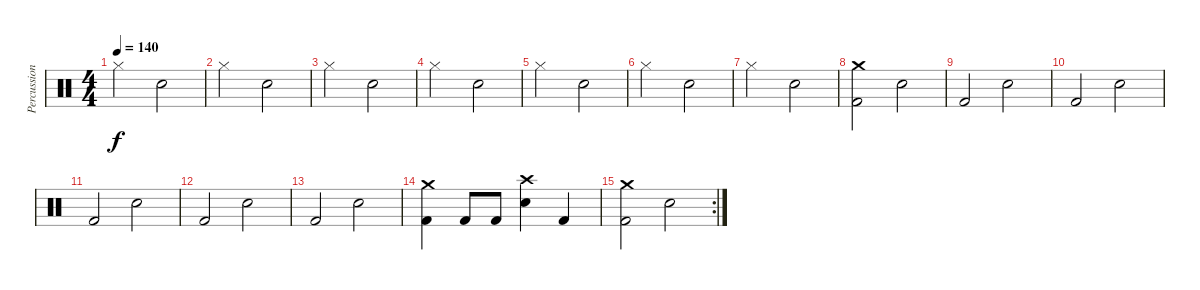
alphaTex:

\track ("Percussion" "Percussion") {instrument percussion}
\staff {score}
\articulation defaults
\ts (4 4)
\tempo 140
\clef neutral
\ks c "Hi-Hat (closed)".2{dy f} "Snare (hit) 2".2
|
"Hi-Hat (closed)".2 "Snare (hit) 2".2 |
"Hi-Hat (closed)".2 "Snare (hit) 2".2 |
"Hi-Hat (closed)".2 "Snare (hit) 2".2 |
"Hi-Hat (closed)".2 "Snare (hit) 2".2 |
"Hi-Hat (closed)".2 "Snare (hit) 2".2 |
"Hi-Hat (closed)".2 "Snare (hit) 2".2 |
("Crash medium (hit)" "Kick (hit) 2").2 "Snare (hit) 2".2 |
"Kick (hit) 2".2 "Snare (hit) 2".2 |
"Kick (hit) 2".2 "Snare (hit) 2".2 |
"Kick (hit) 2".2 "Snare (hit) 2".2 |
"Kick (hit) 2".2 "Snare (hit) 2".2 |
"Kick (hit) 2".2 "Snare (hit) 2".2 |
("Crash medium (hit)" "Kick (hit) 2").4 "Kick (hit) 2".8 "Kick (hit) 2".8 ("Crash high (hit)" "Snare (hit) 2").4 "Kick (hit) 2".4 |
\rc 2
("Crash medium (hit)" "Kick (hit) 2").2 "Snare (hit) 2".2
